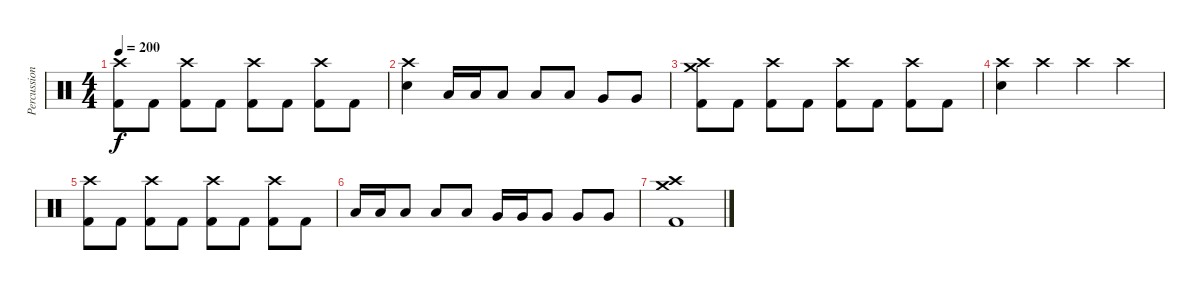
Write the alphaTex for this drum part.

\track ("Percussion" "Percussion") {instrument percussion}
\staff {score}
\articulation defaults
\ts (4 4)
\tempo 200
\clef neutral
\ks c
("Crash high (hit)" "Kick (hit) 2").8{dy f} "Kick (hit) 2".8 ("Crash high (hit)" "Kick (hit) 2").8 "Kick (hit) 2".8 ("Crash high (hit)" "Kick (hit) 2").8 "Kick (hit) 2".8 ("Crash high (hit)" "Kick (hit) 2").8 "Kick (hit) 2".8 |
("Crash high (hit)" "Electric Snare (hit)").4 "Low Tom (hit)".16 "Low Tom (hit)".16 "Low Tom (hit)".8 "Low Tom (hit)".8 "Low Tom (hit)".8 "Very Low Tom (hit)".8 "Very Low Tom (hit)".8 |
("Crash high (hit)" "Crash medium (hit)" "Kick (hit) 2").8 "Kick (hit) 2".8 ("Crash high (hit)" "Kick (hit) 2").8 "Kick (hit) 2".8 ("Crash high (hit)" "Kick (hit) 2").8 "Kick (hit) 2".8 ("Crash high (hit)" "Kick (hit) 2").8 "Kick (hit) 2".8 |
("Crash high (hit)" "Electric Snare (hit)").4 "Crash high (hit)".4 "Crash high (hit)".4 "Crash high (hit)".4 |
("Crash high (hit)" "Kick (hit) 2").8 "Kick (hit) 2".8 ("Crash high (hit)" "Kick (hit) 2").8 "Kick (hit) 2".8 ("Crash high (hit)" "Kick (hit) 2").8 "Kick (hit) 2".8 ("Crash high (hit)" "Kick (hit) 2").8 "Kick (hit) 2".8 |
"Low Tom (hit)".16 "Low Tom (hit)".16 "Low Tom (hit)".8 "Low Tom (hit)".8 "Low Tom (hit)".8 "Very Low Tom (hit)".16 "Very Low Tom (hit)".16 "Very Low Tom (hit)".8 "Very Low Tom (hit)".8 "Very Low Tom (hit)".8 |
("Crash high (hit)" "Crash medium (hit)" "Kick (hit) 2").1
